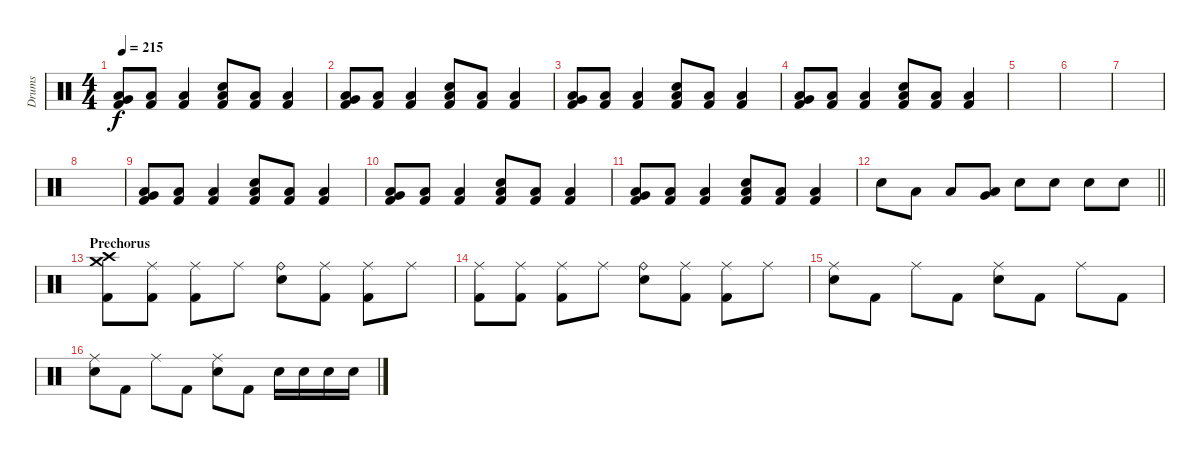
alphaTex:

\track ("Drums" "Drums") {instrument percussion}
\staff {score}
\articulation defaults
\ts (4 4)
\tempo 215
\clef neutral
\ks c
("Very Low Tom (hit)" "Low Floor Tom (hit)" "Kick (hit) 2").8{dy f} ("Low Floor Tom (hit)" "Kick (hit) 2").8 ("Low Floor Tom (hit)" "Kick (hit) 2").4 ("Electric Snare (hit)" "Low Floor Tom (hit)" "Kick (hit) 2").8 ("Low Floor Tom (hit)" "Kick (hit) 2").8 ("Low Floor Tom (hit)" "Kick (hit) 2").4 |
("Very Low Tom (hit)" "Low Floor Tom (hit)" "Kick (hit) 2").8 ("Low Floor Tom (hit)" "Kick (hit) 2").8 ("Low Floor Tom (hit)" "Kick (hit) 2").4 ("Electric Snare (hit)" "Low Floor Tom (hit)" "Kick (hit) 2").8 ("Low Floor Tom (hit)" "Kick (hit) 2").8 ("Low Floor Tom (hit)" "Kick (hit) 2").4 |
("Very Low Tom (hit)" "Low Floor Tom (hit)" "Kick (hit) 2").8 ("Low Floor Tom (hit)" "Kick (hit) 2").8 ("Low Floor Tom (hit)" "Kick (hit) 2").4 ("Electric Snare (hit)" "Low Floor Tom (hit)" "Kick (hit) 2").8 ("Low Floor Tom (hit)" "Kick (hit) 2").8 ("Low Floor Tom (hit)" "Kick (hit) 2").4 |
("Very Low Tom (hit)" "Low Floor Tom (hit)" "Kick (hit) 2").8 ("Low Floor Tom (hit)" "Kick (hit) 2").8 ("Low Floor Tom (hit)" "Kick (hit) 2").4 ("Electric Snare (hit)" "Low Floor Tom (hit)" "Kick (hit) 2").8 ("Low Floor Tom (hit)" "Kick (hit) 2").8 ("Low Floor Tom (hit)" "Kick (hit) 2").4 |
|
|
|
|
("Very Low Tom (hit)" "Low Floor Tom (hit)" "Kick (hit) 2").8 ("Low Floor Tom (hit)" "Kick (hit) 2").8 ("Low Floor Tom (hit)" "Kick (hit) 2").4 ("Electric Snare (hit)" "Low Floor Tom (hit)" "Kick (hit) 2").8 ("Low Floor Tom (hit)" "Kick (hit) 2").8 ("Low Floor Tom (hit)" "Kick (hit) 2").4 |
("Very Low Tom (hit)" "Low Floor Tom (hit)" "Kick (hit) 2").8 ("Low Floor Tom (hit)" "Kick (hit) 2").8 ("Low Floor Tom (hit)" "Kick (hit) 2").4 ("Electric Snare (hit)" "Low Floor Tom (hit)" "Kick (hit) 2").8 ("Low Floor Tom (hit)" "Kick (hit) 2").8 ("Low Floor Tom (hit)" "Kick (hit) 2").4 |
("Very Low Tom (hit)" "Low Floor Tom (hit)" "Kick (hit) 2").8 ("Low Floor Tom (hit)" "Kick (hit) 2").8 ("Low Floor Tom (hit)" "Kick (hit) 2").4 ("Electric Snare (hit)" "Low Floor Tom (hit)" "Kick (hit) 2").8 ("Low Floor Tom (hit)" "Kick (hit) 2").8 ("Low Floor Tom (hit)" "Kick (hit) 2").4 |
\barLineRight lightlight "Electric Snare (hit)".8 "Low Floor Tom (hit)".8 "Low Floor Tom (hit)".8
("Very Low Tom (hit)" "Low Floor Tom (hit)").8 "Electric Snare (hit)".8 "Electric Snare (hit)".8 "Electric Snare (hit)".8 "Electric Snare (hit)".8 |
\section ("" "Prechorus")
("Crash medium (hit)" "Crash high (hit)" "Kick (hit) 2").8 ("Ride (middle)" "Kick (hit) 2").8 ("Ride (middle)" "Kick (hit) 2").8 "Ride (middle)".8 ("Ride (bell)" "Electric Snare (hit)").8 ("Ride (middle)" "Kick (hit) 2").8 ("Ride (middle)" "Kick (hit) 2").8 "Ride (middle)".8 |
("Ride (middle)" "Kick (hit) 2").8 ("Ride (middle)" "Kick (hit) 2").8 ("Ride (middle)" "Kick (hit) 2").8 "Ride (middle)".8 ("Ride (bell)" "Electric Snare (hit)").8 ("Ride (middle)" "Kick (hit) 2").8 ("Ride (middle)" "Kick (hit) 2").8 "Ride (middle)".8 |
("Ride (middle)" "Electric Snare (hit)").8 "Kick (hit) 2".8 "Ride (middle)".8 "Kick (hit) 2".8 ("Ride (middle)" "Electric Snare (hit)").8 "Kick (hit) 2".8 "Ride (middle)".8 "Kick (hit) 2".8 |
("Ride (middle)" "Electric Snare (hit)").8 "Kick (hit) 2".8 "Ride (middle)".8 "Kick (hit) 2".8 ("Ride (middle)" "Electric Snare (hit)").8 "Kick (hit) 2".8 "Electric Snare (hit)".16 "Electric Snare (hit)".16 "Electric Snare (hit)".16 "Electric Snare (hit)".16
